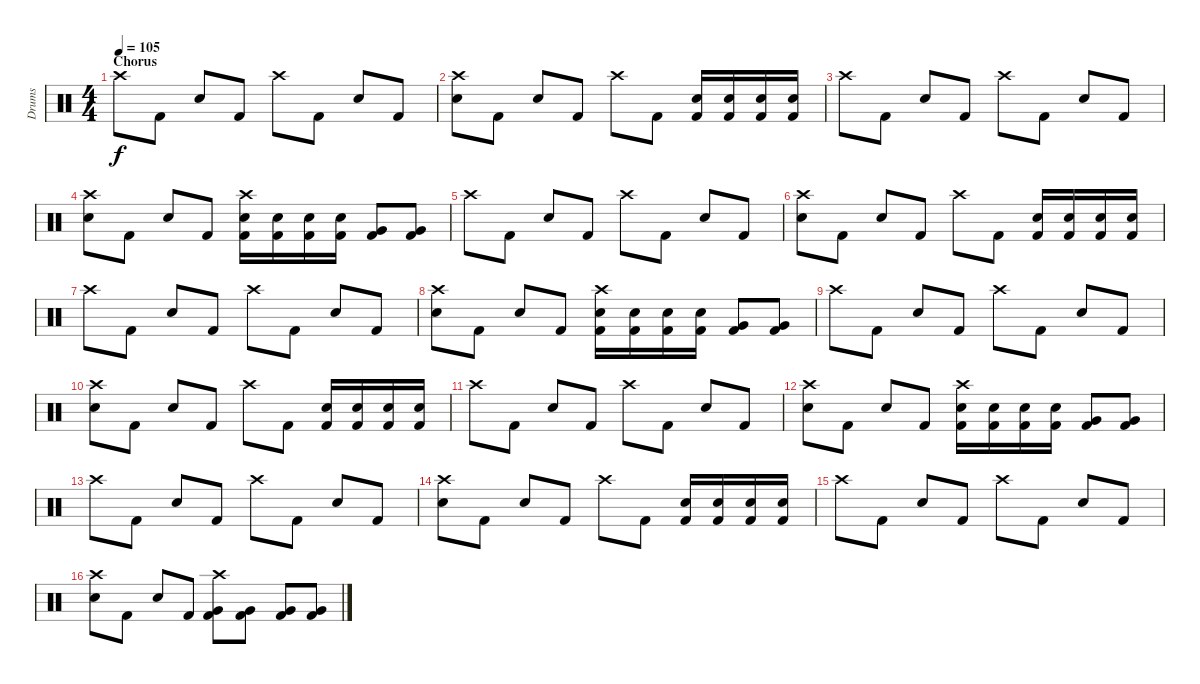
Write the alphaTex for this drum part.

\track ("Drums" "Drums") {instrument percussion}
\staff {score}
\articulation defaults
\ts (4 4)
\section ("" "Chorus")
\tempo 105
\clef neutral
\ks c "Crash high (hit)".8{dy f} "Kick (hit) 2".8 "Snare (hit) 2".8 "Kick (hit) 2".8 "Crash high (hit)".8 "Kick (hit) 2".8 "Snare (hit) 2".8 "Kick (hit) 2".8
|
("Crash high (hit)" "Snare (hit) 2").8 "Kick (hit) 2".8 "Snare (hit) 2".8 "Kick (hit) 2".8 "Crash high (hit)".8 "Kick (hit) 2".8 ("Snare (hit) 2" "Kick (hit) 2").16 ("Snare (hit) 2" "Kick (hit) 2").16 ("Snare (hit) 2" "Kick (hit) 2").16 ("Snare (hit) 2" "Kick (hit) 2").16 |
"Crash high (hit)".8 "Kick (hit) 2".8 "Snare (hit) 2".8 "Kick (hit) 2".8 "Crash high (hit)".8 "Kick (hit) 2".8 "Snare (hit) 2".8 "Kick (hit) 2".8 |
("Crash high (hit)" "Snare (hit) 2").8 "Kick (hit) 2".8 "Snare (hit) 2".8 "Kick (hit) 2".8 ("Crash high (hit)" "Snare (hit) 2" "Kick (hit) 2").16 ("Snare (hit) 2" "Kick (hit) 2").16 ("Snare (hit) 2" "Kick (hit) 2").16 ("Snare (hit) 2" "Kick (hit) 2").16 ("Very Low Tom (hit)" "Kick (hit) 2").8 ("Very Low Tom (hit)" "Kick (hit) 2").8 |
"Crash high (hit)".8 "Kick (hit) 2".8 "Snare (hit) 2".8 "Kick (hit) 2".8 "Crash high (hit)".8 "Kick (hit) 2".8 "Snare (hit) 2".8 "Kick (hit) 2".8 |
("Crash high (hit)" "Snare (hit) 2").8 "Kick (hit) 2".8 "Snare (hit) 2".8 "Kick (hit) 2".8 "Crash high (hit)".8 "Kick (hit) 2".8 ("Snare (hit) 2" "Kick (hit) 2").16 ("Snare (hit) 2" "Kick (hit) 2").16 ("Snare (hit) 2" "Kick (hit) 2").16 ("Snare (hit) 2" "Kick (hit) 2").16 |
"Crash high (hit)".8 "Kick (hit) 2".8 "Snare (hit) 2".8 "Kick (hit) 2".8 "Crash high (hit)".8 "Kick (hit) 2".8 "Snare (hit) 2".8 "Kick (hit) 2".8 |
("Crash high (hit)" "Snare (hit) 2").8 "Kick (hit) 2".8 "Snare (hit) 2".8 "Kick (hit) 2".8 ("Crash high (hit)" "Snare (hit) 2" "Kick (hit) 2").16 ("Snare (hit) 2" "Kick (hit) 2").16 ("Snare (hit) 2" "Kick (hit) 2").16 ("Snare (hit) 2" "Kick (hit) 2").16 ("Very Low Tom (hit)" "Kick (hit) 2").8 ("Very Low Tom (hit)" "Kick (hit) 2").8 |
"Crash high (hit)".8 "Kick (hit) 2".8 "Snare (hit) 2".8 "Kick (hit) 2".8 "Crash high (hit)".8 "Kick (hit) 2".8 "Snare (hit) 2".8 "Kick (hit) 2".8 |
("Crash high (hit)" "Snare (hit) 2").8 "Kick (hit) 2".8 "Snare (hit) 2".8 "Kick (hit) 2".8 "Crash high (hit)".8 "Kick (hit) 2".8 ("Snare (hit) 2" "Kick (hit) 2").16 ("Snare (hit) 2" "Kick (hit) 2").16 ("Snare (hit) 2" "Kick (hit) 2").16 ("Snare (hit) 2" "Kick (hit) 2").16 |
"Crash high (hit)".8 "Kick (hit) 2".8 "Snare (hit) 2".8 "Kick (hit) 2".8 "Crash high (hit)".8 "Kick (hit) 2".8 "Snare (hit) 2".8 "Kick (hit) 2".8 |
("Crash high (hit)" "Snare (hit) 2").8 "Kick (hit) 2".8 "Snare (hit) 2".8 "Kick (hit) 2".8 ("Crash high (hit)" "Snare (hit) 2" "Kick (hit) 2").16 ("Snare (hit) 2" "Kick (hit) 2").16 ("Snare (hit) 2" "Kick (hit) 2").16 ("Snare (hit) 2" "Kick (hit) 2").16 ("Very Low Tom (hit)" "Kick (hit) 2").8 ("Very Low Tom (hit)" "Kick (hit) 2").8 |
"Crash high (hit)".8 "Kick (hit) 2".8 "Snare (hit) 2".8 "Kick (hit) 2".8 "Crash high (hit)".8 "Kick (hit) 2".8 "Snare (hit) 2".8 "Kick (hit) 2".8 |
("Crash high (hit)" "Snare (hit) 2").8 "Kick (hit) 2".8 "Snare (hit) 2".8 "Kick (hit) 2".8 "Crash high (hit)".8 "Kick (hit) 2".8 ("Snare (hit) 2" "Kick (hit) 2").16 ("Snare (hit) 2" "Kick (hit) 2").16 ("Snare (hit) 2" "Kick (hit) 2").16 ("Snare (hit) 2" "Kick (hit) 2").16 |
"Crash high (hit)".8 "Kick (hit) 2".8 "Snare (hit) 2".8 "Kick (hit) 2".8 "Crash high (hit)".8 "Kick (hit) 2".8 "Snare (hit) 2".8 "Kick (hit) 2".8 |
("Crash high (hit)" "Snare (hit) 2").8 "Kick (hit) 2".8 "Snare (hit) 2".8 "Kick (hit) 2".8 ("Crash high (hit)" "Very Low Tom (hit)" "Kick (hit) 2").8 ("Very Low Tom (hit)" "Kick (hit) 2").8 ("Very Low Tom (hit)" "Kick (hit) 2").8 ("Very Low Tom (hit)" "Kick (hit) 2").8
